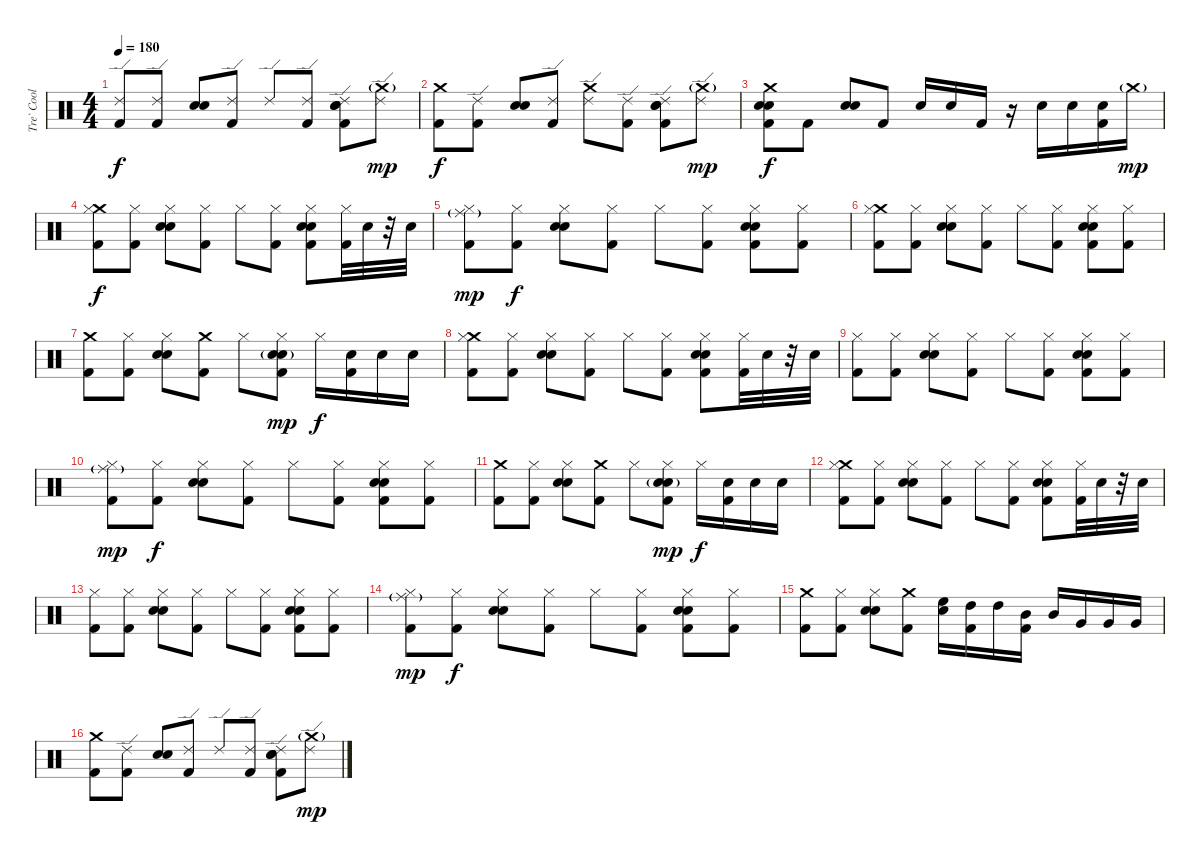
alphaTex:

\track ("Tre` Cool (Drums)" "Tre` Cool ") {instrument percussion}
\staff {score}
\articulation defaults
\ts (4 4)
\tempo 180
\clef neutral
\ks c
("Ride (edge) 2" "Kick (hit) 2").8{dy f} ("Ride (edge) 2" "Kick (hit) 2").8 ("Snare (hit) 2" "Electric Snare (hit)").8 ("Ride (edge) 2" "Kick (hit) 2").8 "Ride (edge) 2".8 ("Ride (edge) 2" "Kick (hit) 2").8 ("Ride (edge) 2" "Snare (hit) 2" "Electric Snare (hit)" "Kick (hit) 2").8 ("Crash medium (hit)"{g} "Ride (edge) 2").8{dy mp} |
("Crash medium (hit)" "Kick (hit) 2").8{dy f} ("Ride (edge) 2" "Kick (hit) 2").8 ("Snare (hit) 2" "Electric Snare (hit)").8 ("Ride (edge) 2" "Kick (hit) 2").8 ("Crash medium (hit)" "Ride (edge) 2").8 ("Ride (edge) 2" "Kick (hit) 2").8 ("Ride (edge) 2" "Snare (hit) 2" "Electric Snare (hit)" "Kick (hit) 2").8 ("Crash medium (hit)"{g} "Ride (edge) 2").8{dy mp} |
("Crash medium (hit)" "Snare (hit) 2" "Electric Snare (hit)" "Kick (hit) 2").8{dy f} "Kick (hit) 2".8 ("Snare (hit) 2" "Electric Snare (hit)").8 "Kick (hit) 2".8 "Snare (hit) 2".16 "Snare (hit) 2".16 "Kick (hit) 2".16 r.16 "Snare (hit) 2".16 "Snare (hit) 2".16 ("Snare (hit) 2" "Kick (hit) 2").16 "Crash medium (hit)"{g}.16{dy mp} |
("Crash medium (hit)" "Hi-Hat (closed)" "Kick (hit) 2").8{dy f} ("Hi-Hat (closed)" "Kick (hit) 2").8 ("Hi-Hat (closed)" "Snare (hit) 2" "Electric Snare (hit)").8 ("Hi-Hat (closed)" "Kick (hit) 2").8 "Hi-Hat (closed)".8 ("Hi-Hat (closed)" "Kick (hit) 2").8 ("Hi-Hat (closed)" "Snare (hit) 2" "Electric Snare (hit)" "Kick (hit) 2").8 ("Hi-Hat (closed)" "Kick (hit) 2").32 "Snare (hit) 2".32 r.32 "Snare (hit) 2".32 |
("Ride (middle)"{g} "Hi-Hat (closed)" "Kick (hit) 2").8{dy mp} ("Hi-Hat (closed)" "Kick (hit) 2").8{dy f} ("Hi-Hat (closed)" "Snare (hit) 2" "Electric Snare (hit)").8 ("Hi-Hat (closed)" "Kick (hit) 2").8 "Hi-Hat (closed)".8 ("Hi-Hat (closed)" "Kick (hit) 2").8 ("Hi-Hat (closed)" "Snare (hit) 2" "Electric Snare (hit)" "Kick (hit) 2").8 ("Hi-Hat (closed)" "Kick (hit) 2").8 |
("Crash medium (hit)" "Hi-Hat (closed)" "Kick (hit) 2").8 ("Hi-Hat (closed)" "Kick (hit) 2").8 ("Hi-Hat (closed)" "Snare (hit) 2" "Electric Snare (hit)").8 ("Hi-Hat (closed)" "Kick (hit) 2").8 "Hi-Hat (closed)".8 ("Hi-Hat (closed)" "Kick (hit) 2").8 ("Hi-Hat (closed)" "Snare (hit) 2" "Electric Snare (hit)" "Kick (hit) 2").8 ("Hi-Hat (closed)" "Kick (hit) 2").8 |
("Crash medium (hit)" "Kick (hit) 2").8 ("Hi-Hat (closed)" "Kick (hit) 2").8 ("Hi-Hat (closed)" "Snare (hit) 2" "Electric Snare (hit)").8 ("Crash medium (hit)" "Kick (hit) 2").8 "Hi-Hat (closed)".8 ("Hi-Hat (closed)" "Snare (hit) 2"{g} "Electric Snare (hit)"{g} "Kick (hit) 2").8{dy mp} "Hi-Hat (closed)".16{dy f} ("Snare (hit) 2" "Kick (hit) 2").16 "Snare (hit) 2".16 "Snare (hit) 2".16 |
("Crash medium (hit)" "Hi-Hat (closed)" "Kick (hit) 2").8 ("Hi-Hat (closed)" "Kick (hit) 2").8 ("Hi-Hat (closed)" "Snare (hit) 2" "Electric Snare (hit)").8 ("Hi-Hat (closed)" "Kick (hit) 2").8 "Hi-Hat (closed)".8 ("Hi-Hat (closed)" "Kick (hit) 2").8 ("Hi-Hat (closed)" "Snare (hit) 2" "Electric Snare (hit)" "Kick (hit) 2").8 ("Hi-Hat (closed)" "Kick (hit) 2").32 "Snare (hit) 2".32 r.32 "Snare (hit) 2".32 |
("Hi-Hat (closed)" "Kick (hit) 2").8 ("Hi-Hat (closed)" "Kick (hit) 2").8 ("Hi-Hat (closed)" "Snare (hit) 2" "Electric Snare (hit)").8 ("Hi-Hat (closed)" "Kick (hit) 2").8 "Hi-Hat (closed)".8 ("Hi-Hat (closed)" "Kick (hit) 2").8 ("Hi-Hat (closed)" "Snare (hit) 2" "Electric Snare (hit)" "Kick (hit) 2").8 ("Hi-Hat (closed)" "Kick (hit) 2").8 |
("Ride (middle)"{g} "Hi-Hat (closed)" "Kick (hit) 2").8{dy mp} ("Hi-Hat (closed)" "Kick (hit) 2").8{dy f} ("Hi-Hat (closed)" "Snare (hit) 2" "Electric Snare (hit)").8 ("Hi-Hat (closed)" "Kick (hit) 2").8 "Hi-Hat (closed)".8 ("Hi-Hat (closed)" "Kick (hit) 2").8 ("Hi-Hat (closed)" "Snare (hit) 2" "Electric Snare (hit)" "Kick (hit) 2").8 ("Hi-Hat (closed)" "Kick (hit) 2").8 |
("Crash medium (hit)" "Kick (hit) 2").8 ("Hi-Hat (closed)" "Kick (hit) 2").8 ("Hi-Hat (closed)" "Snare (hit) 2" "Electric Snare (hit)").8 ("Crash medium (hit)" "Kick (hit) 2").8 "Hi-Hat (closed)".8 ("Hi-Hat (closed)" "Snare (hit) 2"{g} "Electric Snare (hit)"{g} "Kick (hit) 2").8{dy mp} "Hi-Hat (closed)".16{dy f} ("Snare (hit) 2" "Kick (hit) 2").16 "Snare (hit) 2".16 "Snare (hit) 2".16 |
("Crash medium (hit)" "Hi-Hat (closed)" "Kick (hit) 2").8 ("Hi-Hat (closed)" "Kick (hit) 2").8 ("Hi-Hat (closed)" "Snare (hit) 2" "Electric Snare (hit)").8 ("Hi-Hat (closed)" "Kick (hit) 2").8 "Hi-Hat (closed)".8 ("Hi-Hat (closed)" "Kick (hit) 2").8 ("Hi-Hat (closed)" "Snare (hit) 2" "Electric Snare (hit)" "Kick (hit) 2").8 ("Hi-Hat (closed)" "Kick (hit) 2").32 "Snare (hit) 2".32 r.32 "Snare (hit) 2".32 |
("Hi-Hat (closed)" "Kick (hit) 2").8 ("Hi-Hat (closed)" "Kick (hit) 2").8 ("Hi-Hat (closed)" "Snare (hit) 2" "Electric Snare (hit)").8 ("Hi-Hat (closed)" "Kick (hit) 2").8 "Hi-Hat (closed)".8 ("Hi-Hat (closed)" "Kick (hit) 2").8 ("Hi-Hat (closed)" "Snare (hit) 2" "Electric Snare (hit)" "Kick (hit) 2").8 ("Hi-Hat (closed)" "Kick (hit) 2").8 |
("Ride (middle)"{g} "Hi-Hat (closed)" "Kick (hit) 2").8{dy mp} ("Hi-Hat (closed)" "Kick (hit) 2").8{dy f} ("Hi-Hat (closed)" "Snare (hit) 2" "Electric Snare (hit)").8 ("Hi-Hat (closed)" "Kick (hit) 2").8 "Hi-Hat (closed)".8 ("Hi-Hat (closed)" "Kick (hit) 2").8 ("Hi-Hat (closed)" "Snare (hit) 2" "Electric Snare (hit)" "Kick (hit) 2").8 ("Hi-Hat (closed)" "Kick (hit) 2").8 |
("Crash medium (hit)" "Kick (hit) 2").8 ("Hi-Hat (closed)" "Kick (hit) 2").8 ("Hi-Hat (closed)" "Snare (hit) 2" "Electric Snare (hit)").8 ("Crash medium (hit)" "Kick (hit) 2").8 ("High Floor Tom (hit)" "Electric Snare (hit)").16 ("High Tom (hit)" "Kick (hit) 2").16 "High Tom (hit)".16 ("Mid Tom (hit)" "Kick (hit) 2").16 "Mid Tom (hit)".16 "Very Low Tom (hit)".16 "Very Low Tom (hit)".16 "Very Low Tom (hit)".16 |
("Crash medium (hit)" "Kick (hit) 2").8 ("Ride (edge) 2" "Kick (hit) 2").8 ("Snare (hit) 2" "Electric Snare (hit)").8 ("Ride (edge) 2" "Kick (hit) 2").8 "Ride (edge) 2".8 ("Ride (edge) 2" "Kick (hit) 2").8 ("Ride (edge) 2" "Snare (hit) 2" "Electric Snare (hit)" "Kick (hit) 2").8 ("Crash medium (hit)"{g} "Ride (edge) 2").8{dy mp}
